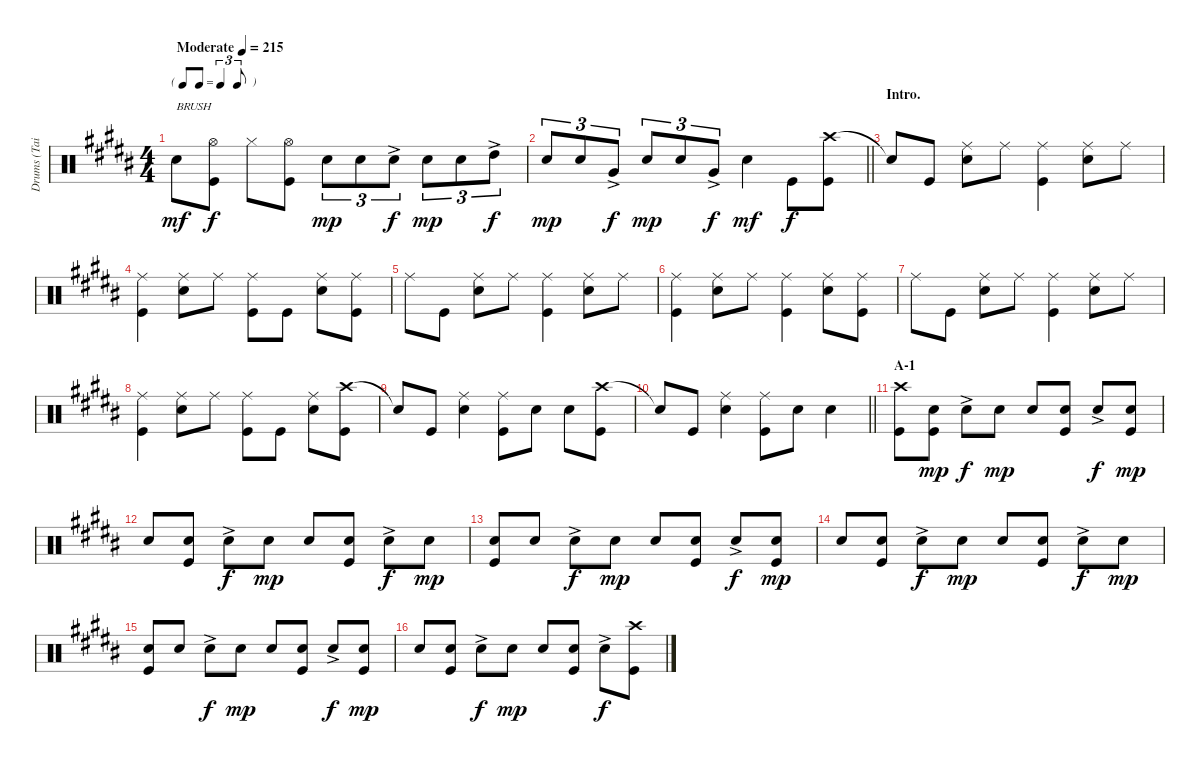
\track ("Drums (Tainaka Ritsu)" "Drums (Tai") {instrument percussion}
\staff {score}
\articulation defaults
\ts (4 4)
\tf triplet8th
\tempo (215 "Moderate")
\clef neutral
\ks b "Snare (hit) 2".8{txt "BRUSH" dy mf}
("Hi-Hat (open)" "Kick (hit)").8{dy f} "Hi-Hat (closed)".8 ("Hi-Hat (open)" "Kick (hit)").8 "Snare (hit) 2".8{tu (3 2) dy mp} "Snare (hit) 2".8{tu (3 2)} "Snare (hit) 2"{ac}.8{tu (3 2) dy f} "Snare (hit) 2".8{tu (3 2) dy mp} "Snare (hit) 2".8{tu (3 2)} "High Tom (hit)"{ac}.8{tu (3 2) dy f} |
\barLineRight lightlight "Snare (hit) 2".8{tu (3 2) dy mp} "Snare (hit) 2".8{tu (3 2)} "Very Low Tom (hit)"{ac}.8{tu (3 2) dy f} "Snare (hit) 2".8{tu (3 2) dy mp} "Snare (hit) 2".8{tu (3 2)} "Very Low Tom (hit)"{ac}.8{tu (3 2) dy f} "Snare (hit) 2".4{dy mf} "Kick (hit)".8{dy f}
("Crash high (hit)" "Kick (hit)").8 |
\section ("" "Intro.")
"Snare (hit)"{t}.8 "Kick (hit)".8 ("Ride (middle)" "Snare (hit) 2").8 "Ride (middle)".8 ("Ride (middle)" "Kick (hit)").4 ("Ride (middle)" "Snare (hit) 2").8 "Ride (middle)".8 |
("Ride (middle)" "Kick (hit)").4 ("Ride (middle)" "Snare (hit) 2").8 "Ride (middle)".8 ("Ride (middle)" "Kick (hit)").8 "Kick (hit)".8 ("Ride (middle)" "Snare (hit) 2").8 ("Ride (middle)" "Kick (hit)").8 |
"Ride (middle)".8 "Kick (hit)".8 ("Ride (middle)" "Snare (hit) 2").8 "Ride (middle)".8 ("Ride (middle)" "Kick (hit)").4 ("Ride (middle)" "Snare (hit) 2").8 "Ride (middle)".8 |
("Ride (middle)" "Kick (hit)").4 ("Ride (middle)" "Snare (hit) 2").8 "Ride (middle)".8 ("Ride (middle)" "Kick (hit)").4 ("Ride (middle)" "Snare (hit) 2").8 ("Ride (middle)" "Kick (hit)").8 |
"Ride (middle)".8 "Kick (hit)".8 ("Ride (middle)" "Snare (hit) 2").8 "Ride (middle)".8 ("Ride (middle)" "Kick (hit)").4 ("Ride (middle)" "Snare (hit) 2").8 "Ride (middle)".8 |
("Ride (middle)" "Kick (hit)").4 ("Ride (middle)" "Snare (hit) 2").8 "Ride (middle)".8 ("Ride (middle)" "Kick (hit)").8 "Kick (hit)".8 ("Ride (middle)" "Snare (hit) 2").8 ("Crash high (hit)" "Kick (hit)").8 |
"Snare (hit)"{t}.8 "Kick (hit)".8 ("Ride (middle)" "Snare (hit) 2").4 ("Ride (middle)" "Kick (hit)").8 "Snare (hit) 2".8 "Snare (hit) 2".8 ("Crash high (hit)" "Kick (hit)").8 |
\barLineRight lightlight "Snare (hit)"{t}.8 "Kick (hit)".8
("Ride (middle)" "Snare (hit) 2").4 ("Ride (middle)" "Kick (hit)").8 "Snare (hit) 2".8 "Snare (hit) 2".4 |
\section ("" "A-1")
("Crash high (hit)" "Kick (hit)").8 ("Snare (hit) 2" "Kick (hit)").8{dy mp} "Snare (hit) 2"{ac}.8{dy f} "Snare (hit) 2".8{dy mp} "Snare (hit) 2".8 ("Snare (hit) 2" "Kick (hit)").8 "Snare (hit) 2"{ac}.8{dy f} ("Snare (hit) 2" "Kick (hit)").8{dy mp} |
"Snare (hit) 2".8 ("Snare (hit) 2" "Kick (hit)").8 "Snare (hit) 2"{ac}.8{dy f} "Snare (hit) 2".8{dy mp} "Snare (hit) 2".8 ("Snare (hit) 2" "Kick (hit)").8 "Snare (hit) 2"{ac}.8{dy f} "Snare (hit) 2".8{dy mp} |
("Snare (hit) 2" "Kick (hit)").8 "Snare (hit) 2".8 "Snare (hit) 2"{ac}.8{dy f} "Snare (hit) 2".8{dy mp} "Snare (hit) 2".8 ("Snare (hit) 2" "Kick (hit)").8 "Snare (hit) 2"{ac}.8{dy f} ("Snare (hit) 2" "Kick (hit)").8{dy mp} |
"Snare (hit) 2".8 ("Snare (hit) 2" "Kick (hit)").8 "Snare (hit) 2"{ac}.8{dy f} "Snare (hit) 2".8{dy mp} "Snare (hit) 2".8 ("Snare (hit) 2" "Kick (hit)").8 "Snare (hit) 2"{ac}.8{dy f} "Snare (hit) 2".8{dy mp} |
("Snare (hit) 2" "Kick (hit)").8 "Snare (hit) 2".8 "Snare (hit) 2"{ac}.8{dy f} "Snare (hit) 2".8{dy mp} "Snare (hit) 2".8 ("Snare (hit) 2" "Kick (hit)").8 "Snare (hit) 2"{ac}.8{dy f} ("Snare (hit) 2" "Kick (hit)").8{dy mp} |
"Snare (hit) 2".8 ("Snare (hit) 2" "Kick (hit)").8 "Snare (hit) 2"{ac}.8{dy f} "Snare (hit) 2".8{dy mp} "Snare (hit) 2".8 ("Snare (hit) 2" "Kick (hit)").8 "Snare (hit) 2"{ac}.8{dy f} ("Crash high (hit)" "Kick (hit)").8
